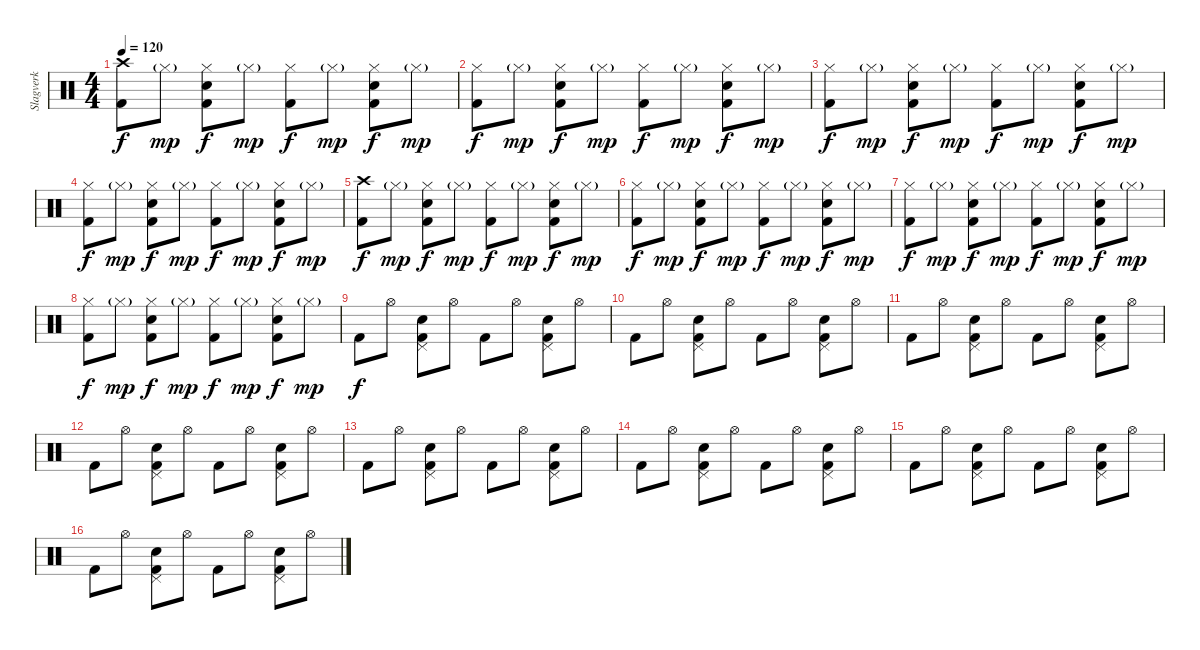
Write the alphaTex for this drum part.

\track ("Slagverk" "Slagverk") {instrument percussion}
\staff {score}
\articulation defaults
\ts (4 4)
\tempo 120
\clef neutral
\ks c
("Kick (hit) 2" "Crash high (hit)").8{dy f} "Hi-Hat (closed)"{g}.8{dy mp} ("Kick (hit) 2" "Hi-Hat (closed)" "Snare (hit) 2").8{dy f} "Hi-Hat (closed)"{g}.8{dy mp} ("Kick (hit) 2" "Hi-Hat (closed)").8{dy f} "Hi-Hat (closed)"{g}.8{dy mp} ("Kick (hit) 2" "Hi-Hat (closed)" "Snare (hit) 2").8{dy f} "Hi-Hat (closed)"{g}.8{dy mp} |
("Kick (hit) 2" "Hi-Hat (closed)").8{dy f} "Hi-Hat (closed)"{g}.8{dy mp} ("Kick (hit) 2" "Hi-Hat (closed)" "Snare (hit) 2").8{dy f} "Hi-Hat (closed)"{g}.8{dy mp} ("Kick (hit) 2" "Hi-Hat (closed)").8{dy f} "Hi-Hat (closed)"{g}.8{dy mp} ("Kick (hit) 2" "Hi-Hat (closed)" "Snare (hit) 2").8{dy f} "Hi-Hat (closed)"{g}.8{dy mp} |
("Kick (hit) 2" "Hi-Hat (closed)").8{dy f} "Hi-Hat (closed)"{g}.8{dy mp} ("Kick (hit) 2" "Hi-Hat (closed)" "Snare (hit) 2").8{dy f} "Hi-Hat (closed)"{g}.8{dy mp} ("Kick (hit) 2" "Hi-Hat (closed)").8{dy f} "Hi-Hat (closed)"{g}.8{dy mp} ("Kick (hit) 2" "Hi-Hat (closed)" "Snare (hit) 2").8{dy f} "Hi-Hat (closed)"{g}.8{dy mp} |
("Kick (hit) 2" "Hi-Hat (closed)").8{dy f} "Hi-Hat (closed)"{g}.8{dy mp} ("Kick (hit) 2" "Hi-Hat (closed)" "Snare (hit) 2").8{dy f} "Hi-Hat (closed)"{g}.8{dy mp} ("Kick (hit) 2" "Hi-Hat (closed)").8{dy f} "Hi-Hat (closed)"{g}.8{dy mp} ("Kick (hit) 2" "Hi-Hat (closed)" "Snare (hit) 2").8{dy f} "Hi-Hat (closed)"{g}.8{dy mp} |
("Kick (hit) 2" "Crash high (hit)").8{dy f} "Hi-Hat (closed)"{g}.8{dy mp} ("Kick (hit) 2" "Hi-Hat (closed)" "Snare (hit) 2").8{dy f} "Hi-Hat (closed)"{g}.8{dy mp} ("Kick (hit) 2" "Hi-Hat (closed)").8{dy f} "Hi-Hat (closed)"{g}.8{dy mp} ("Kick (hit) 2" "Hi-Hat (closed)" "Snare (hit) 2").8{dy f} "Hi-Hat (closed)"{g}.8{dy mp} |
("Kick (hit) 2" "Hi-Hat (closed)").8{dy f} "Hi-Hat (closed)"{g}.8{dy mp} ("Kick (hit) 2" "Hi-Hat (closed)" "Snare (hit) 2").8{dy f} "Hi-Hat (closed)"{g}.8{dy mp} ("Kick (hit) 2" "Hi-Hat (closed)").8{dy f} "Hi-Hat (closed)"{g}.8{dy mp} ("Kick (hit) 2" "Hi-Hat (closed)" "Snare (hit) 2").8{dy f} "Hi-Hat (closed)"{g}.8{dy mp} |
("Kick (hit) 2" "Hi-Hat (closed)").8{dy f} "Hi-Hat (closed)"{g}.8{dy mp} ("Kick (hit) 2" "Hi-Hat (closed)" "Snare (hit) 2").8{dy f} "Hi-Hat (closed)"{g}.8{dy mp} ("Kick (hit) 2" "Hi-Hat (closed)").8{dy f} "Hi-Hat (closed)"{g}.8{dy mp} ("Kick (hit) 2" "Hi-Hat (closed)" "Snare (hit) 2").8{dy f} "Hi-Hat (closed)"{g}.8{dy mp} |
("Kick (hit) 2" "Hi-Hat (closed)").8{dy f} "Hi-Hat (closed)"{g}.8{dy mp} ("Kick (hit) 2" "Hi-Hat (closed)" "Snare (hit) 2").8{dy f} "Hi-Hat (closed)"{g}.8{dy mp} ("Kick (hit) 2" "Hi-Hat (closed)").8{dy f} "Hi-Hat (closed)"{g}.8{dy mp} ("Kick (hit) 2" "Hi-Hat (closed)" "Snare (hit) 2").8{dy f} "Hi-Hat (closed)"{g}.8{dy mp} |
"Kick (hit) 2".8{dy f} "Hi-Hat (open)".8 ("Kick (hit) 2" "Pedal Hi-Hat (hit)" "Snare (hit) 2").8 "Hi-Hat (open)".8 "Kick (hit) 2".8 "Hi-Hat (open)".8 ("Kick (hit) 2" "Pedal Hi-Hat (hit)" "Snare (hit) 2").8 "Hi-Hat (open)".8 |
"Kick (hit) 2".8 "Hi-Hat (open)".8 ("Kick (hit) 2" "Pedal Hi-Hat (hit)" "Snare (hit) 2").8 "Hi-Hat (open)".8 "Kick (hit) 2".8 "Hi-Hat (open)".8 ("Kick (hit) 2" "Pedal Hi-Hat (hit)" "Snare (hit) 2").8 "Hi-Hat (open)".8 |
"Kick (hit) 2".8 "Hi-Hat (open)".8 ("Kick (hit) 2" "Pedal Hi-Hat (hit)" "Snare (hit) 2").8 "Hi-Hat (open)".8 "Kick (hit) 2".8 "Hi-Hat (open)".8 ("Kick (hit) 2" "Pedal Hi-Hat (hit)" "Snare (hit) 2").8 "Hi-Hat (open)".8 |
"Kick (hit) 2".8 "Hi-Hat (open)".8 ("Kick (hit) 2" "Pedal Hi-Hat (hit)" "Snare (hit) 2").8 "Hi-Hat (open)".8 "Kick (hit) 2".8 "Hi-Hat (open)".8 ("Kick (hit) 2" "Pedal Hi-Hat (hit)" "Snare (hit) 2").8 "Hi-Hat (open)".8 |
"Kick (hit) 2".8 "Hi-Hat (open)".8 ("Kick (hit) 2" "Pedal Hi-Hat (hit)" "Snare (hit) 2").8 "Hi-Hat (open)".8 "Kick (hit) 2".8 "Hi-Hat (open)".8 ("Kick (hit) 2" "Pedal Hi-Hat (hit)" "Snare (hit) 2").8 "Hi-Hat (open)".8 |
"Kick (hit) 2".8 "Hi-Hat (open)".8 ("Kick (hit) 2" "Pedal Hi-Hat (hit)" "Snare (hit) 2").8 "Hi-Hat (open)".8 "Kick (hit) 2".8 "Hi-Hat (open)".8 ("Kick (hit) 2" "Pedal Hi-Hat (hit)" "Snare (hit) 2").8 "Hi-Hat (open)".8 |
"Kick (hit) 2".8 "Hi-Hat (open)".8 ("Kick (hit) 2" "Pedal Hi-Hat (hit)" "Snare (hit) 2").8 "Hi-Hat (open)".8 "Kick (hit) 2".8 "Hi-Hat (open)".8 ("Kick (hit) 2" "Pedal Hi-Hat (hit)" "Snare (hit) 2").8 "Hi-Hat (open)".8 |
"Kick (hit) 2".8 "Hi-Hat (open)".8 ("Kick (hit) 2" "Pedal Hi-Hat (hit)" "Snare (hit) 2").8 "Hi-Hat (open)".8 "Kick (hit) 2".8 "Hi-Hat (open)".8 ("Kick (hit) 2" "Pedal Hi-Hat (hit)" "Snare (hit) 2").8 "Hi-Hat (open)".8
